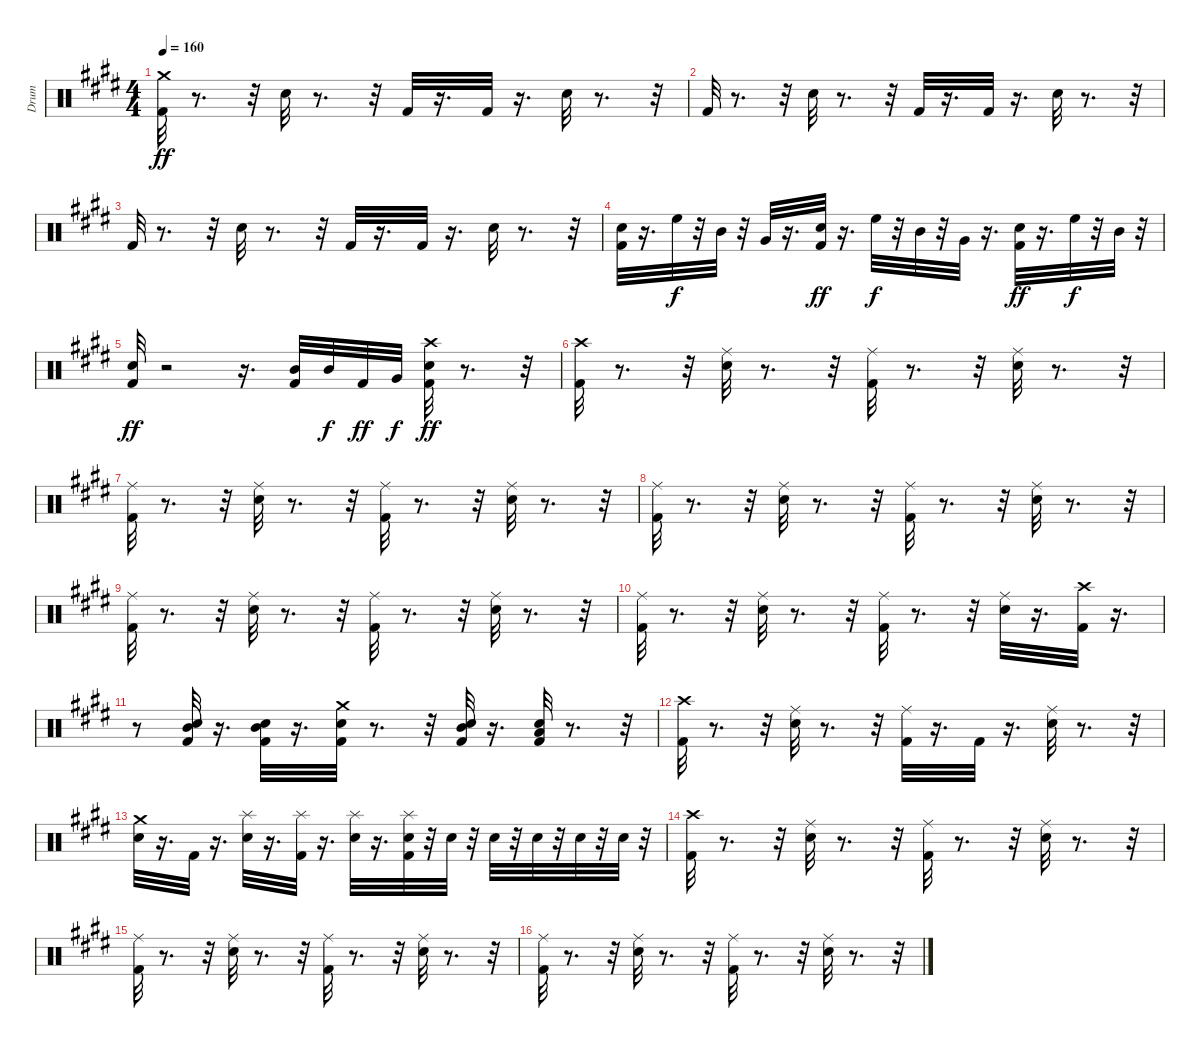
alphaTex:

\track ("Drum" "Drum") {instrument percussion}
\staff {score}
\articulation defaults
\ts (4 4)
\tempo 160
\clef neutral
\ks e
("Crash medium (hit)" "Kick (hit) 2").32{dy ff} r.8{d} r.32 "Electric Snare (hit)".32 r.8{d} r.32 "Kick (hit) 2".32 r.16{d} "Kick (hit) 2".32 r.16{d} "Electric Snare (hit)".32 r.8{d} r.32 |
"Kick (hit) 2".32 r.8{d} r.32 "Electric Snare (hit)".32 r.8{d} r.32 "Kick (hit) 2".32 r.16{d} "Kick (hit) 2".32 r.16{d} "Electric Snare (hit)".32 r.8{d} r.32 |
"Kick (hit) 2".32 r.8{d} r.32 "Electric Snare (hit)".32 r.8{d} r.32 "Kick (hit) 2".32 r.16{d} "Kick (hit) 2".32 r.16{d} "Electric Snare (hit)".32 r.8{d} r.32 |
("Kick (hit) 2" "Electric Snare (hit)").32 r.16{d} "High Floor Tom (hit)".32{dy f} r.32 "Mid Tom (hit)".32 r.32 "Very Low Tom (hit)".32 r.16{d} ("Kick (hit) 2" "Electric Snare (hit)").32{dy ff} r.16{d} "High Floor Tom (hit)".32{dy f} r.32 "Mid Tom (hit)".32 r.32 "Very Low Tom (hit)".32 r.16{d} ("Kick (hit) 2" "Electric Snare (hit)").32{dy ff} r.16{d} "High Floor Tom (hit)".32{dy f} r.32 "Mid Tom (hit)".32 r.32 |
("Kick (hit) 2" "Electric Snare (hit)").32{dy ff} r.2 r.16{d} ("Mid Tom (hit)" "Kick (hit) 2").32 "Mid Tom (hit)".32{dy f} "Kick (hit) 2".32{dy ff} "Very Low Tom (hit)".32{dy f} ("Crash high (hit)" "Kick (hit) 2" "Electric Snare (hit)").32{dy ff} r.8{d} r.32 |
("Crash high (hit)" "Kick (hit) 2").32 r.8{d} r.32 ("Electric Snare (hit)" "Ride (middle)").32 r.8{d} r.32 ("Kick (hit) 2" "Ride (middle)").32 r.8{d} r.32 ("Electric Snare (hit)" "Ride (middle)").32 r.8{d} r.32 |
("Kick (hit) 2" "Ride (middle)").32 r.8{d} r.32 ("Electric Snare (hit)" "Ride (middle)").32 r.8{d} r.32 ("Kick (hit) 2" "Ride (middle)").32 r.8{d} r.32 ("Electric Snare (hit)" "Ride (middle)").32 r.8{d} r.32 |
("Kick (hit) 2" "Ride (middle)").32 r.8{d} r.32 ("Electric Snare (hit)" "Ride (middle)").32 r.8{d} r.32 ("Kick (hit) 2" "Ride (middle)").32 r.8{d} r.32 ("Electric Snare (hit)" "Ride (middle)").32 r.8{d} r.32 |
("Kick (hit) 2" "Ride (middle)").32 r.8{d} r.32 ("Electric Snare (hit)" "Ride (middle)").32 r.8{d} r.32 ("Kick (hit) 2" "Ride (middle)").32 r.8{d} r.32 ("Electric Snare (hit)" "Ride (middle)").32 r.8{d} r.32 |
("Kick (hit) 2" "Ride (middle)").32 r.8{d} r.32 ("Electric Snare (hit)" "Ride (middle)").32 r.8{d} r.32 ("Kick (hit) 2" "Ride (middle)").32 r.8{d} r.32 ("Electric Snare (hit)" "Ride (middle)").32 r.16{d} ("Crash high (hit)" "Kick (hit) 2").32 r.16{d} |
r.8 ("Mid Tom (hit)" "Kick (hit) 2" "Electric Snare (hit)").32 r.16{d} ("Mid Tom (hit)" "Kick (hit) 2" "Electric Snare (hit)").32 r.16{d} ("Crash medium (hit)" "Kick (hit) 2" "Electric Snare (hit)").32 r.8{d} r.32 ("Mid Tom (hit)" "Kick (hit) 2" "Electric Snare (hit)").32 r.16{d} ("Kick (hit) 2" "Low Tom (hit)" "Electric Snare (hit)").32 r.8{d} r.32 |
("Crash high (hit)" "Kick (hit) 2").32 r.8{d} r.32 ("Electric Snare (hit)" "Ride (middle)").32 r.8{d} r.32 ("Kick (hit) 2" "Ride (middle)").32 r.16{d} "Kick (hit) 2".32 r.16{d} ("Electric Snare (hit)" "Ride (middle)").32 r.8{d} r.32 |
("Crash medium (hit)" "Electric Snare (hit)").32 r.16{d} "Kick (hit) 2".32 r.16{d} ("Splash (hit)" "Electric Snare (hit)").32 r.16{d} ("Splash (hit)" "Kick (hit) 2").32 r.16{d} ("Splash (hit)" "Electric Snare (hit)").32 r.16{d} ("Splash (hit)" "Kick (hit) 2" "Electric Snare (hit)").32 r.32 "Electric Snare (hit)".32 r.32 "Electric Snare (hit)".32 r.32 "Electric Snare (hit)".32 r.32 "Electric Snare (hit)".32 r.32 "Electric Snare (hit)".32 r.32 |
("Crash high (hit)" "Kick (hit) 2").32 r.8{d} r.32 ("Electric Snare (hit)" "Ride (middle)").32 r.8{d} r.32 ("Kick (hit) 2" "Ride (middle)").32 r.8{d} r.32 ("Electric Snare (hit)" "Ride (middle)").32 r.8{d} r.32 |
("Kick (hit) 2" "Ride (middle)").32 r.8{d} r.32 ("Electric Snare (hit)" "Ride (middle)").32 r.8{d} r.32 ("Kick (hit) 2" "Ride (middle)").32 r.8{d} r.32 ("Electric Snare (hit)" "Ride (middle)").32 r.8{d} r.32 |
("Kick (hit) 2" "Ride (middle)").32 r.8{d} r.32 ("Electric Snare (hit)" "Ride (middle)").32 r.8{d} r.32 ("Kick (hit) 2" "Ride (middle)").32 r.8{d} r.32 ("Electric Snare (hit)" "Ride (middle)").32 r.8{d} r.32
